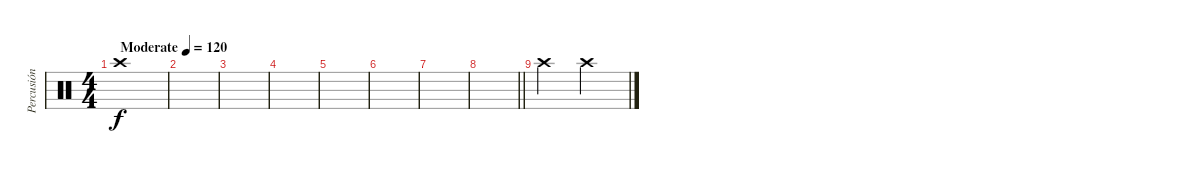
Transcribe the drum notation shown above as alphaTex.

\track ("Percusión" "Percusión") {instrument percussion}
\staff {score}
\articulation defaults
\ts (4 4)
\tempo (120 "Moderate")
\clef neutral
\ks c "Crash high (hit)".1{dy f}
|
|
|
|
|
|
|
\barLineRight lightlight
|
"Crash high (hit)".2 "Crash high (hit)".2
